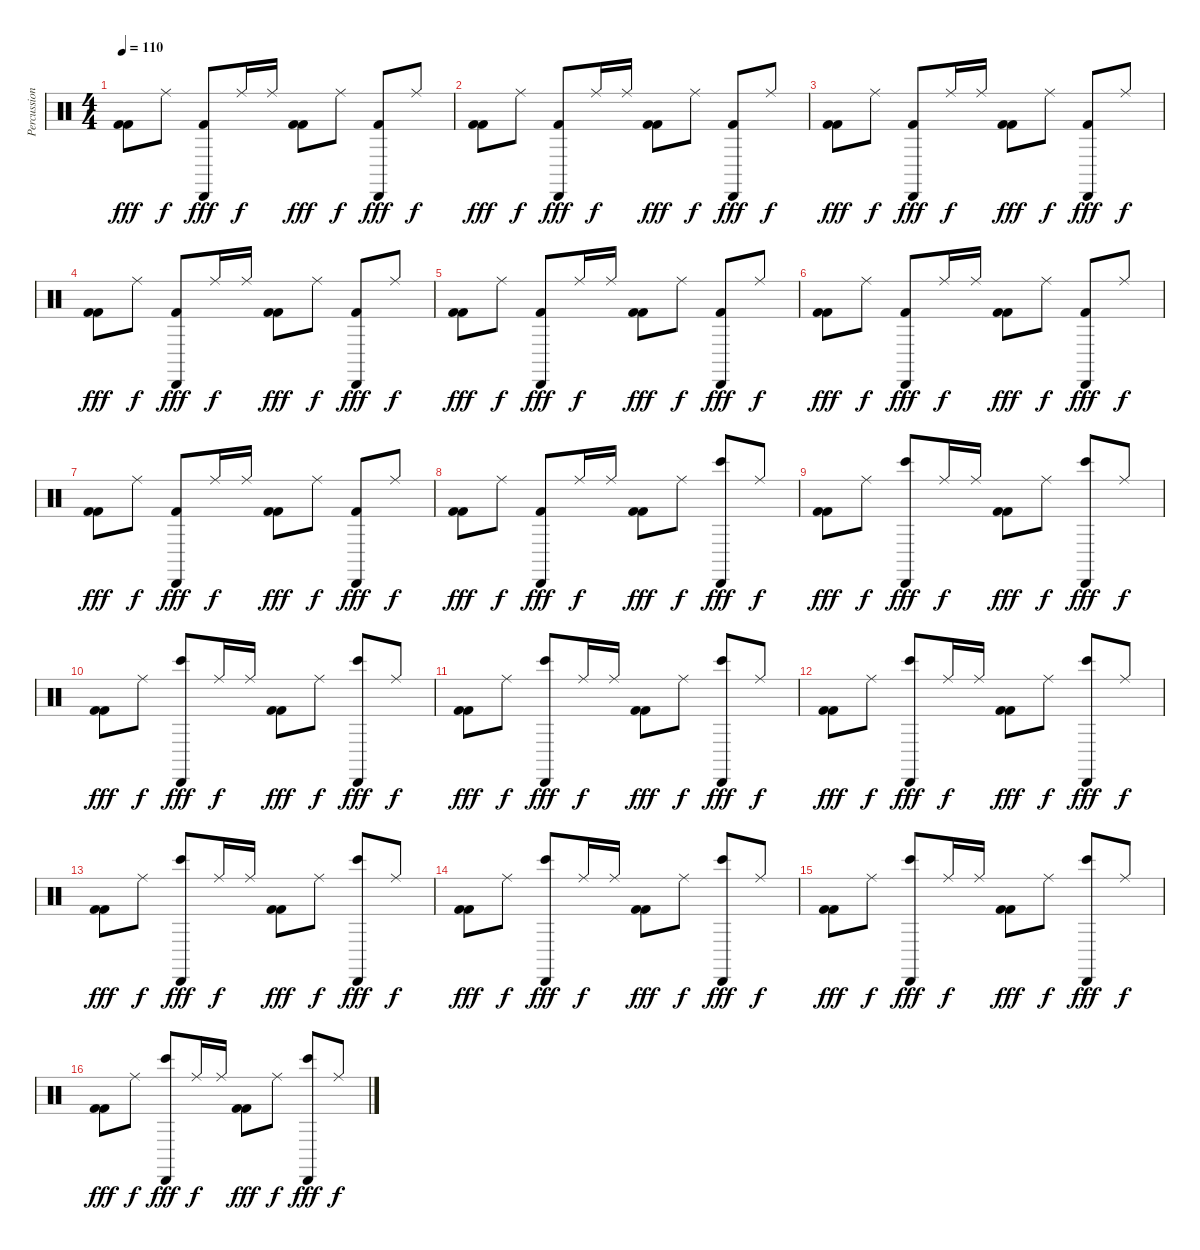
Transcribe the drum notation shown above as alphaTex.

\track ("Percussion" "Percussion") {instrument percussion}
\staff {score}
\articulation defaults
\ts (4 4)
\tempo 110
\clef neutral
\ks c
("Kick (hit) 2" "Kick (hit) 2").8{dy fff} "Ride (middle)".8{dy f} ("Kick (hit) 2" "Cabasa (hit)").8{dy fff} "Ride (middle)".16{dy f} "Ride (middle)".16 ("Kick (hit) 2" "Kick (hit) 2").8{dy fff} "Ride (middle)".8{dy f} ("Kick (hit) 2" "Cabasa (hit)").8{dy fff} "Ride (middle)".8{dy f} |
("Kick (hit) 2" "Kick (hit) 2").8{dy fff} "Ride (middle)".8{dy f} ("Kick (hit) 2" "Cabasa (hit)").8{dy fff} "Ride (middle)".16{dy f} "Ride (middle)".16 ("Kick (hit) 2" "Kick (hit) 2").8{dy fff} "Ride (middle)".8{dy f} ("Kick (hit) 2" "Cabasa (hit)").8{dy fff} "Ride (middle)".8{dy f} |
("Kick (hit) 2" "Kick (hit) 2").8{dy fff} "Ride (middle)".8{dy f} ("Kick (hit) 2" "Cabasa (hit)").8{dy fff} "Ride (middle)".16{dy f} "Ride (middle)".16 ("Kick (hit) 2" "Kick (hit) 2").8{dy fff} "Ride (middle)".8{dy f} ("Kick (hit) 2" "Cabasa (hit)").8{dy fff} "Ride (middle)".8{dy f} |
("Kick (hit) 2" "Kick (hit) 2").8{dy fff} "Ride (middle)".8{dy f} ("Kick (hit) 2" "Cabasa (hit)").8{dy fff} "Ride (middle)".16{dy f} "Ride (middle)".16 ("Kick (hit) 2" "Kick (hit) 2").8{dy fff} "Ride (middle)".8{dy f} ("Kick (hit) 2" "Cabasa (hit)").8{dy fff} "Ride (middle)".8{dy f} |
("Kick (hit) 2" "Kick (hit) 2").8{dy fff} "Ride (middle)".8{dy f} ("Kick (hit) 2" "Cabasa (hit)").8{dy fff} "Ride (middle)".16{dy f} "Ride (middle)".16 ("Kick (hit) 2" "Kick (hit) 2").8{dy fff} "Ride (middle)".8{dy f} ("Kick (hit) 2" "Cabasa (hit)").8{dy fff} "Ride (middle)".8{dy f} |
("Kick (hit) 2" "Kick (hit) 2").8{dy fff} "Ride (middle)".8{dy f} ("Kick (hit) 2" "Cabasa (hit)").8{dy fff} "Ride (middle)".16{dy f} "Ride (middle)".16 ("Kick (hit) 2" "Kick (hit) 2").8{dy fff} "Ride (middle)".8{dy f} ("Kick (hit) 2" "Cabasa (hit)").8{dy fff} "Ride (middle)".8{dy f} |
("Kick (hit) 2" "Kick (hit) 2").8{dy fff} "Ride (middle)".8{dy f} ("Kick (hit) 2" "Cabasa (hit)").8{dy fff} "Ride (middle)".16{dy f} "Ride (middle)".16 ("Kick (hit) 2" "Kick (hit) 2").8{dy fff} "Ride (middle)".8{dy f} ("Kick (hit) 2" "Cabasa (hit)").8{dy fff} "Ride (middle)".8{dy f} |
("Kick (hit) 2" "Kick (hit) 2").8{dy fff} "Ride (middle)".8{dy f} ("Kick (hit) 2" "Cabasa (hit)").8{dy fff} "Ride (middle)".16{dy f} "Ride (middle)".16 ("Kick (hit) 2" "Kick (hit) 2").8{dy fff} "Ride (middle)".8{dy f} ("Bongo High (hit)" "Cabasa (hit)").8{dy fff} "Ride (middle)".8{dy f} |
("Kick (hit) 2" "Kick (hit) 2").8{dy fff} "Ride (middle)".8{dy f} ("Bongo High (hit)" "Cabasa (hit)").8{dy fff} "Ride (middle)".16{dy f} "Ride (middle)".16 ("Kick (hit) 2" "Kick (hit) 2").8{dy fff} "Ride (middle)".8{dy f} ("Bongo High (hit)" "Cabasa (hit)").8{dy fff} "Ride (middle)".8{dy f} |
("Kick (hit) 2" "Kick (hit) 2").8{dy fff} "Ride (middle)".8{dy f} ("Bongo High (hit)" "Cabasa (hit)").8{dy fff} "Ride (middle)".16{dy f} "Ride (middle)".16 ("Kick (hit) 2" "Kick (hit) 2").8{dy fff} "Ride (middle)".8{dy f} ("Bongo High (hit)" "Cabasa (hit)").8{dy fff} "Ride (middle)".8{dy f} |
("Kick (hit) 2" "Kick (hit) 2").8{dy fff} "Ride (middle)".8{dy f} ("Bongo High (hit)" "Cabasa (hit)").8{dy fff} "Ride (middle)".16{dy f} "Ride (middle)".16 ("Kick (hit) 2" "Kick (hit) 2").8{dy fff} "Ride (middle)".8{dy f} ("Bongo High (hit)" "Cabasa (hit)").8{dy fff} "Ride (middle)".8{dy f} |
("Kick (hit) 2" "Kick (hit) 2").8{dy fff} "Ride (middle)".8{dy f} ("Bongo High (hit)" "Cabasa (hit)").8{dy fff} "Ride (middle)".16{dy f} "Ride (middle)".16 ("Kick (hit) 2" "Kick (hit) 2").8{dy fff} "Ride (middle)".8{dy f} ("Bongo High (hit)" "Cabasa (hit)").8{dy fff} "Ride (middle)".8{dy f} |
("Kick (hit) 2" "Kick (hit) 2").8{dy fff} "Ride (middle)".8{dy f} ("Bongo High (hit)" "Cabasa (hit)").8{dy fff} "Ride (middle)".16{dy f} "Ride (middle)".16 ("Kick (hit) 2" "Kick (hit) 2").8{dy fff} "Ride (middle)".8{dy f} ("Bongo High (hit)" "Cabasa (hit)").8{dy fff} "Ride (middle)".8{dy f} |
("Kick (hit) 2" "Kick (hit) 2").8{dy fff} "Ride (middle)".8{dy f} ("Bongo High (hit)" "Cabasa (hit)").8{dy fff} "Ride (middle)".16{dy f} "Ride (middle)".16 ("Kick (hit) 2" "Kick (hit) 2").8{dy fff} "Ride (middle)".8{dy f} ("Bongo High (hit)" "Cabasa (hit)").8{dy fff} "Ride (middle)".8{dy f} |
("Kick (hit) 2" "Kick (hit) 2").8{dy fff} "Ride (middle)".8{dy f} ("Bongo High (hit)" "Cabasa (hit)").8{dy fff} "Ride (middle)".16{dy f} "Ride (middle)".16 ("Kick (hit) 2" "Kick (hit) 2").8{dy fff} "Ride (middle)".8{dy f} ("Bongo High (hit)" "Cabasa (hit)").8{dy fff} "Ride (middle)".8{dy f} |
("Kick (hit) 2" "Kick (hit) 2").8{dy fff} "Ride (middle)".8{dy f} ("Bongo High (hit)" "Cabasa (hit)").8{dy fff} "Ride (middle)".16{dy f} "Ride (middle)".16 ("Kick (hit) 2" "Kick (hit) 2").8{dy fff} "Ride (middle)".8{dy f} ("Bongo High (hit)" "Cabasa (hit)").8{dy fff} "Ride (middle)".8{dy f}
